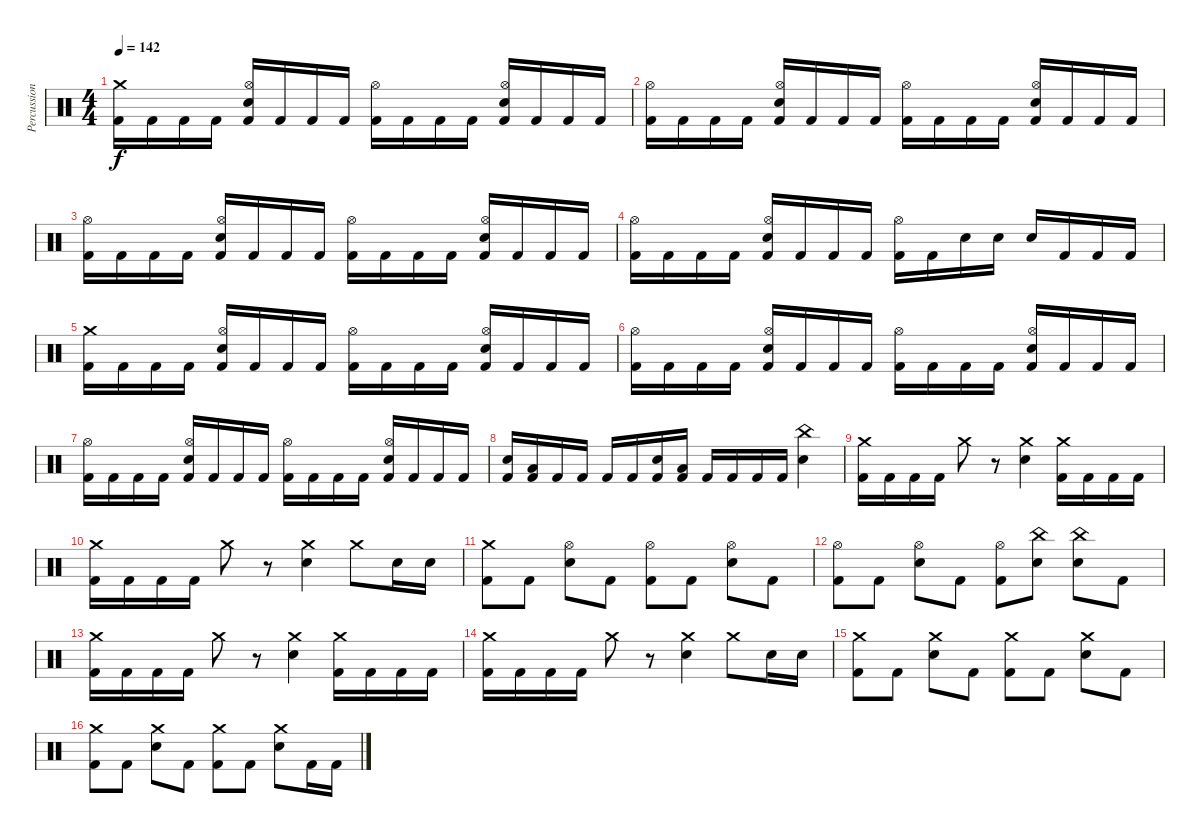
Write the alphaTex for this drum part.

\track ("Percussion" "Percussion") {instrument percussion}
\staff {score}
\articulation defaults
\ts (4 4)
\tempo 142
\clef neutral
\ks c
("Crash medium (hit)" "Kick (hit) 2").16{dy f} "Kick (hit) 2".16 "Kick (hit) 2".16 "Kick (hit) 2".16 ("Hi-Hat (open)" "Electric Snare (hit)" "Kick (hit) 2").16 "Kick (hit) 2".16 "Kick (hit) 2".16 "Kick (hit) 2".16 ("Hi-Hat (open)" "Kick (hit) 2").16 "Kick (hit) 2".16 "Kick (hit) 2".16 "Kick (hit) 2".16 ("Hi-Hat (open)" "Electric Snare (hit)" "Kick (hit) 2").16 "Kick (hit) 2".16 "Kick (hit) 2".16 "Kick (hit) 2".16 |
("Hi-Hat (open)" "Kick (hit) 2").16 "Kick (hit) 2".16 "Kick (hit) 2".16 "Kick (hit) 2".16 ("Hi-Hat (open)" "Electric Snare (hit)" "Kick (hit) 2").16 "Kick (hit) 2".16 "Kick (hit) 2".16 "Kick (hit) 2".16 ("Hi-Hat (open)" "Kick (hit) 2").16 "Kick (hit) 2".16 "Kick (hit) 2".16 "Kick (hit) 2".16 ("Hi-Hat (open)" "Electric Snare (hit)" "Kick (hit) 2").16 "Kick (hit) 2".16 "Kick (hit) 2".16 "Kick (hit) 2".16 |
("Hi-Hat (open)" "Kick (hit) 2").16 "Kick (hit) 2".16 "Kick (hit) 2".16 "Kick (hit) 2".16 ("Hi-Hat (open)" "Electric Snare (hit)" "Kick (hit) 2").16 "Kick (hit) 2".16 "Kick (hit) 2".16 "Kick (hit) 2".16 ("Hi-Hat (open)" "Kick (hit) 2").16 "Kick (hit) 2".16 "Kick (hit) 2".16 "Kick (hit) 2".16 ("Hi-Hat (open)" "Electric Snare (hit)" "Kick (hit) 2").16 "Kick (hit) 2".16 "Kick (hit) 2".16 "Kick (hit) 2".16 |
("Hi-Hat (open)" "Kick (hit) 2").16 "Kick (hit) 2".16 "Kick (hit) 2".16 "Kick (hit) 2".16 ("Hi-Hat (open)" "Electric Snare (hit)" "Kick (hit) 2").16 "Kick (hit) 2".16 "Kick (hit) 2".16 "Kick (hit) 2".16 ("Hi-Hat (open)" "Kick (hit) 2").16 "Kick (hit) 2".16 "Electric Snare (hit)".16 "Electric Snare (hit)".16 "Electric Snare (hit)".16 "Kick (hit) 2".16 "Kick (hit) 2".16 "Kick (hit) 2".16 |
("Crash medium (hit)" "Kick (hit) 2").16 "Kick (hit) 2".16 "Kick (hit) 2".16 "Kick (hit) 2".16 ("Hi-Hat (open)" "Electric Snare (hit)" "Kick (hit) 2").16 "Kick (hit) 2".16 "Kick (hit) 2".16 "Kick (hit) 2".16 ("Hi-Hat (open)" "Kick (hit) 2").16 "Kick (hit) 2".16 "Kick (hit) 2".16 "Kick (hit) 2".16 ("Hi-Hat (open)" "Electric Snare (hit)" "Kick (hit) 2").16 "Kick (hit) 2".16 "Kick (hit) 2".16 "Kick (hit) 2".16 |
("Hi-Hat (open)" "Kick (hit) 2").16 "Kick (hit) 2".16 "Kick (hit) 2".16 "Kick (hit) 2".16 ("Hi-Hat (open)" "Electric Snare (hit)" "Kick (hit) 2").16 "Kick (hit) 2".16 "Kick (hit) 2".16 "Kick (hit) 2".16 ("Hi-Hat (open)" "Kick (hit) 2").16 "Kick (hit) 2".16 "Kick (hit) 2".16 "Kick (hit) 2".16 ("Hi-Hat (open)" "Electric Snare (hit)" "Kick (hit) 2").16 "Kick (hit) 2".16 "Kick (hit) 2".16 "Kick (hit) 2".16 |
("Hi-Hat (open)" "Kick (hit) 2").16 "Kick (hit) 2".16 "Kick (hit) 2".16 "Kick (hit) 2".16 ("Hi-Hat (open)" "Electric Snare (hit)" "Kick (hit) 2").16 "Kick (hit) 2".16 "Kick (hit) 2".16 "Kick (hit) 2".16 ("Hi-Hat (open)" "Kick (hit) 2").16 "Kick (hit) 2".16 "Kick (hit) 2".16 "Kick (hit) 2".16 ("Hi-Hat (open)" "Electric Snare (hit)" "Kick (hit) 2").16 "Kick (hit) 2".16 "Kick (hit) 2".16 "Kick (hit) 2".16 |
("Electric Snare (hit)" "Kick (hit) 2").16 ("Low Floor Tom (hit)" "Kick (hit) 2").16 "Kick (hit) 2".16 "Kick (hit) 2".16 "Kick (hit) 2".16 "Kick (hit) 2".16 ("Electric Snare (hit)" "Kick (hit) 2").16 ("Low Floor Tom (hit)" "Kick (hit) 2").16 "Kick (hit) 2".16 "Kick (hit) 2".16 "Kick (hit) 2".16 "Kick (hit) 2".16 ("China (hit)" "Electric Snare (hit)").4 |
("Crash medium (hit)" "Kick (hit) 2").16 "Kick (hit) 2".16 "Kick (hit) 2".16 "Kick (hit) 2".16 "Crash medium (hit)".8 r.8 ("Crash medium (hit)" "Electric Snare (hit)").4 ("Crash medium (hit)" "Kick (hit) 2").16 "Kick (hit) 2".16 "Kick (hit) 2".16 "Kick (hit) 2".16 |
("Crash medium (hit)" "Kick (hit) 2").16 "Kick (hit) 2".16 "Kick (hit) 2".16 "Kick (hit) 2".16 "Crash medium (hit)".8 r.8 ("Crash medium (hit)" "Electric Snare (hit)").4 "Crash medium (hit)".8 "Electric Snare (hit)".16 "Electric Snare (hit)".16 |
("Crash medium (hit)" "Kick (hit) 2").8 "Kick (hit) 2".8 ("Hi-Hat (open)" "Electric Snare (hit)").8 "Kick (hit) 2".8 ("Hi-Hat (open)" "Kick (hit) 2").8 "Kick (hit) 2".8 ("Hi-Hat (open)" "Electric Snare (hit)").8 "Kick (hit) 2".8 |
("Hi-Hat (open)" "Kick (hit) 2").8 "Kick (hit) 2".8 ("Hi-Hat (open)" "Electric Snare (hit)").8 "Kick (hit) 2".8 ("Hi-Hat (open)" "Kick (hit) 2").8 ("China (hit)" "Electric Snare (hit)").8 ("China (hit)" "Electric Snare (hit)").8 "Kick (hit) 2".8 |
("Crash medium (hit)" "Kick (hit) 2").16 "Kick (hit) 2".16 "Kick (hit) 2".16 "Kick (hit) 2".16 "Crash medium (hit)".8 r.8 ("Crash medium (hit)" "Electric Snare (hit)").4 ("Crash medium (hit)" "Kick (hit) 2").16 "Kick (hit) 2".16 "Kick (hit) 2".16 "Kick (hit) 2".16 |
("Crash medium (hit)" "Kick (hit) 2").16 "Kick (hit) 2".16 "Kick (hit) 2".16 "Kick (hit) 2".16 "Crash medium (hit)".8 r.8 ("Crash medium (hit)" "Electric Snare (hit)").4 "Crash medium (hit)".8 "Electric Snare (hit)".16 "Electric Snare (hit)".16 |
("Crash medium (hit)" "Kick (hit) 2").8 "Kick (hit) 2".8 ("Crash medium (hit)" "Electric Snare (hit)").8 "Kick (hit) 2".8 ("Crash medium (hit)" "Kick (hit) 2").8 "Kick (hit) 2".8 ("Crash medium (hit)" "Electric Snare (hit)").8 "Kick (hit) 2".8 |
("Crash medium (hit)" "Kick (hit) 2").8 "Kick (hit) 2".8 ("Crash medium (hit)" "Electric Snare (hit)").8 "Kick (hit) 2".8 ("Crash medium (hit)" "Kick (hit) 2").8 "Kick (hit) 2".8 ("Crash medium (hit)" "Electric Snare (hit)").8 "Kick (hit) 2".16 "Kick (hit) 2".16
